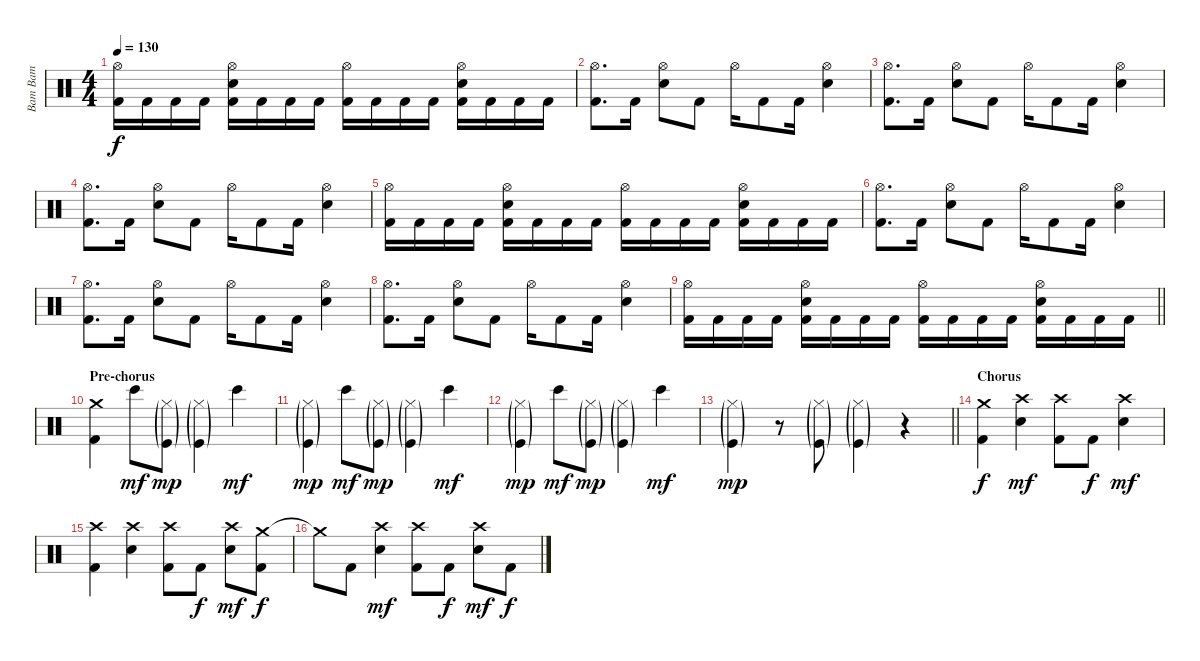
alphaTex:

\track ("Bam Bam" "Bam Bam") {instrument percussion}
\staff {score}
\articulation defaults
\ts (4 4)
\tempo 130
\clef neutral
\ks c
("Hi-Hat (open)" "Kick (hit) 2").16{dy f} "Kick (hit) 2".16 "Kick (hit) 2".16 "Kick (hit) 2".16 ("Hi-Hat (open)" "Electric Snare (hit)" "Kick (hit) 2").16 "Kick (hit) 2".16 "Kick (hit) 2".16 "Kick (hit) 2".16 ("Hi-Hat (open)" "Kick (hit) 2").16 "Kick (hit) 2".16 "Kick (hit) 2".16 "Kick (hit) 2".16 ("Hi-Hat (open)" "Electric Snare (hit)" "Kick (hit) 2").16 "Kick (hit) 2".16 "Kick (hit) 2".16 "Kick (hit) 2".16 |
("Hi-Hat (open)" "Kick (hit) 2").8{d} "Kick (hit) 2".16 ("Hi-Hat (open)" "Electric Snare (hit)").8 "Kick (hit) 2".8 "Hi-Hat (open)".16 "Kick (hit) 2".8 "Kick (hit) 2".16 ("Hi-Hat (open)" "Electric Snare (hit)").4 |
("Hi-Hat (open)" "Kick (hit) 2").8{d} "Kick (hit) 2".16 ("Hi-Hat (open)" "Electric Snare (hit)").8 "Kick (hit) 2".8 "Hi-Hat (open)".16 "Kick (hit) 2".8 "Kick (hit) 2".16 ("Hi-Hat (open)" "Electric Snare (hit)").4 |
("Hi-Hat (open)" "Kick (hit) 2").8{d} "Kick (hit) 2".16 ("Hi-Hat (open)" "Electric Snare (hit)").8 "Kick (hit) 2".8 "Hi-Hat (open)".16 "Kick (hit) 2".8 "Kick (hit) 2".16 ("Hi-Hat (open)" "Electric Snare (hit)").4 |
("Hi-Hat (open)" "Kick (hit) 2").16 "Kick (hit) 2".16 "Kick (hit) 2".16 "Kick (hit) 2".16 ("Hi-Hat (open)" "Electric Snare (hit)" "Kick (hit) 2").16 "Kick (hit) 2".16 "Kick (hit) 2".16 "Kick (hit) 2".16 ("Hi-Hat (open)" "Kick (hit) 2").16 "Kick (hit) 2".16 "Kick (hit) 2".16 "Kick (hit) 2".16 ("Hi-Hat (open)" "Electric Snare (hit)" "Kick (hit) 2").16 "Kick (hit) 2".16 "Kick (hit) 2".16 "Kick (hit) 2".16 |
("Hi-Hat (open)" "Kick (hit) 2").8{d} "Kick (hit) 2".16 ("Hi-Hat (open)" "Electric Snare (hit)").8 "Kick (hit) 2".8 "Hi-Hat (open)".16 "Kick (hit) 2".8 "Kick (hit) 2".16 ("Hi-Hat (open)" "Electric Snare (hit)").4 |
("Hi-Hat (open)" "Kick (hit) 2").8{d} "Kick (hit) 2".16 ("Hi-Hat (open)" "Electric Snare (hit)").8 "Kick (hit) 2".8 "Hi-Hat (open)".16 "Kick (hit) 2".8 "Kick (hit) 2".16 ("Hi-Hat (open)" "Electric Snare (hit)").4 |
("Hi-Hat (open)" "Kick (hit) 2").8{d} "Kick (hit) 2".16 ("Hi-Hat (open)" "Electric Snare (hit)").8 "Kick (hit) 2".8 "Hi-Hat (open)".16 "Kick (hit) 2".8 "Kick (hit) 2".16 ("Hi-Hat (open)" "Electric Snare (hit)").4 |
\barLineRight lightlight
("Hi-Hat (open)" "Kick (hit) 2").16 "Kick (hit) 2".16 "Kick (hit) 2".16 "Kick (hit) 2".16 ("Hi-Hat (open)" "Electric Snare (hit)" "Kick (hit) 2").16 "Kick (hit) 2".16 "Kick (hit) 2".16 "Kick (hit) 2".16 ("Hi-Hat (open)" "Kick (hit) 2").16 "Kick (hit) 2".16 "Kick (hit) 2".16 "Kick (hit) 2".16 ("Hi-Hat (open)" "Electric Snare (hit)" "Kick (hit) 2").16 "Kick (hit) 2".16 "Kick (hit) 2".16 "Kick (hit) 2".16 |
\section ("" "Pre-chorus")
("Crash medium (hit)" "Kick (hit) 2").4 "Bongo High (hit)".8{dy mf} ("Hi-Hat (closed)"{g} "Kick (hit)"{g}).8{dy mp} ("Hi-Hat (closed)"{g} "Kick (hit)"{g}).4 "Bongo High (hit)".4{dy mf} |
("Hi-Hat (closed)"{g} "Kick (hit)"{g}).4{dy mp} "Bongo High (hit)".8{dy mf} ("Hi-Hat (closed)"{g} "Kick (hit)"{g}).8{dy mp} ("Hi-Hat (closed)"{g} "Kick (hit)"{g}).4 "Bongo High (hit)".4{dy mf} |
("Hi-Hat (closed)"{g} "Kick (hit)"{g}).4{dy mp} "Bongo High (hit)".8{dy mf} ("Hi-Hat (closed)"{g} "Kick (hit)"{g}).8{dy mp} ("Hi-Hat (closed)"{g} "Kick (hit)"{g}).4 "Bongo High (hit)".4{dy mf} |
\barLineRight lightlight
("Hi-Hat (closed)"{g} "Kick (hit)"{g}).4{dy mp} r.8 ("Hi-Hat (closed)"{g} "Kick (hit)"{g}).8 ("Hi-Hat (closed)"{g} "Kick (hit)"{g}).4 r.4 |
\section ("" "Chorus")
("Crash medium (hit)" "Kick (hit) 2").4{dy f} ("Crash high (hit)" "Electric Snare (hit)").4{dy mf} ("Crash high (hit)" "Kick (hit) 2").8 "Kick (hit) 2".8{dy f} ("Crash high (hit)" "Electric Snare (hit)").4{dy mf} |
("Crash high (hit)" "Kick (hit) 2").4 ("Crash high (hit)" "Electric Snare (hit)").4 ("Crash high (hit)" "Kick (hit) 2").8 "Kick (hit) 2".8{dy f} ("Crash high (hit)" "Electric Snare (hit)").8{dy mf} ("Crash medium (hit)" "Kick (hit) 2").8{dy f} |
"Crash medium (hit)"{t}.8 "Kick (hit) 2".8 ("Crash high (hit)" "Electric Snare (hit)").4{dy mf} ("Crash high (hit)" "Kick (hit) 2").8 "Kick (hit) 2".8{dy f} ("Crash high (hit)" "Electric Snare (hit)").8{dy mf} "Kick (hit) 2".8{dy f}
